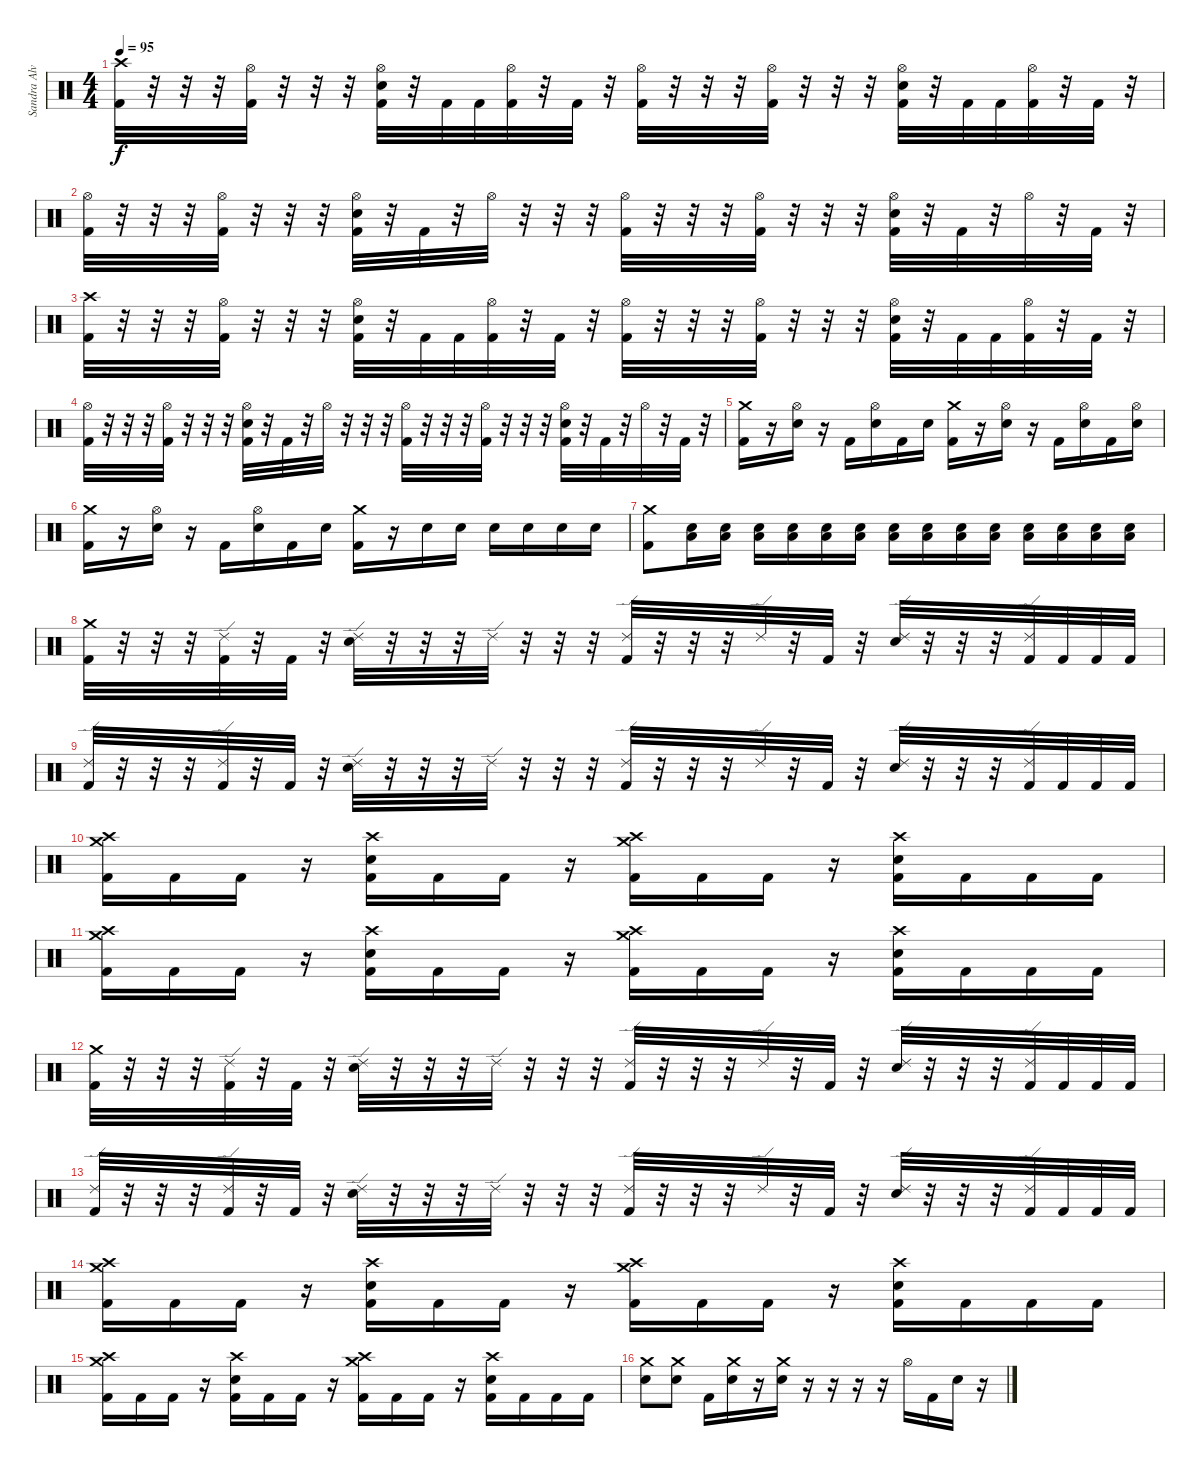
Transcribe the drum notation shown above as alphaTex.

\track ("Sandra Alvarenga" "Sandra Alv") {instrument percussion}
\staff
\articulation defaults
\ts (4 4)
\tempo 95
\clef neutral
\ks c
("Crash high (hit)" "Kick (hit) 2").32{dy f} r.32 r.32 r.32 ("Hi-Hat (open)" "Kick (hit) 2").32 r.32 r.32 r.32 ("Hi-Hat (open)" "Electric Snare (hit)" "Kick (hit) 2").32 r.32 "Kick (hit) 2".32 "Kick (hit) 2".32 ("Hi-Hat (open)" "Kick (hit) 2").32 r.32 "Kick (hit) 2".32 r.32 ("Hi-Hat (open)" "Kick (hit) 2").32 r.32 r.32 r.32 ("Hi-Hat (open)" "Kick (hit) 2").32 r.32 r.32 r.32 ("Hi-Hat (open)" "Electric Snare (hit)" "Kick (hit) 2").32 r.32 "Kick (hit) 2".32 "Kick (hit) 2".32 ("Hi-Hat (open)" "Kick (hit) 2").32 r.32 "Kick (hit) 2".32 r.32 |
("Hi-Hat (open)" "Kick (hit) 2").32 r.32 r.32 r.32 ("Hi-Hat (open)" "Kick (hit) 2").32 r.32 r.32 r.32 ("Hi-Hat (open)" "Electric Snare (hit)" "Kick (hit) 2").32 r.32 "Kick (hit) 2".32 r.32 "Hi-Hat (open)".32 r.32 r.32 r.32 ("Hi-Hat (open)" "Kick (hit) 2").32 r.32 r.32 r.32 ("Hi-Hat (open)" "Kick (hit) 2").32 r.32 r.32 r.32 ("Hi-Hat (open)" "Electric Snare (hit)" "Kick (hit) 2").32 r.32 "Kick (hit) 2".32 r.32 "Hi-Hat (open)".32 r.32 "Kick (hit) 2".32 r.32 |
("Crash high (hit)" "Kick (hit) 2").32 r.32 r.32 r.32 ("Hi-Hat (open)" "Kick (hit) 2").32 r.32 r.32 r.32 ("Hi-Hat (open)" "Electric Snare (hit)" "Kick (hit) 2").32 r.32 "Kick (hit) 2".32 "Kick (hit) 2".32 ("Hi-Hat (open)" "Kick (hit) 2").32 r.32 "Kick (hit) 2".32 r.32 ("Hi-Hat (open)" "Kick (hit) 2").32 r.32 r.32 r.32 ("Hi-Hat (open)" "Kick (hit) 2").32 r.32 r.32 r.32 ("Hi-Hat (open)" "Electric Snare (hit)" "Kick (hit) 2").32 r.32 "Kick (hit) 2".32 "Kick (hit) 2".32 ("Hi-Hat (open)" "Kick (hit) 2").32 r.32 "Kick (hit) 2".32 r.32 |
("Hi-Hat (open)" "Kick (hit) 2").32 r.32 r.32 r.32 ("Hi-Hat (open)" "Kick (hit) 2").32 r.32 r.32 r.32 ("Hi-Hat (open)" "Electric Snare (hit)" "Kick (hit) 2").32 r.32 "Kick (hit) 2".32 r.32 "Hi-Hat (open)".32 r.32 r.32 r.32 ("Hi-Hat (open)" "Kick (hit) 2").32 r.32 r.32 r.32 ("Hi-Hat (open)" "Kick (hit) 2").32 r.32 r.32 r.32 ("Hi-Hat (open)" "Electric Snare (hit)" "Kick (hit) 2").32 r.32 "Kick (hit) 2".32 r.32 "Hi-Hat (open)".32 r.32 "Kick (hit) 2".32 r.32 |
("Crash medium (hit)" "Kick (hit) 2").16 r.16 ("Hi-Hat (open)" "Electric Snare (hit)").16 r.16 "Kick (hit) 2".16 ("Hi-Hat (open)" "Electric Snare (hit)").16 "Kick (hit) 2".16 "Electric Snare (hit)".16 ("Crash medium (hit)" "Kick (hit) 2").16 r.16 ("Hi-Hat (open)" "Electric Snare (hit)").16 r.16 "Kick (hit) 2".16 ("Hi-Hat (open)" "Electric Snare (hit)").16 "Kick (hit) 2".16 ("Hi-Hat (open)" "Electric Snare (hit)").16 |
("Crash medium (hit)" "Kick (hit) 2").16 r.16 ("Hi-Hat (open)" "Electric Snare (hit)").16 r.16 "Kick (hit) 2".16 ("Hi-Hat (open)" "Electric Snare (hit)").16 "Kick (hit) 2".16 "Electric Snare (hit)".16 ("Crash medium (hit)" "Kick (hit) 2").16 r.16 "Electric Snare (hit)".16 "Electric Snare (hit)".16 "Electric Snare (hit)".16 "Electric Snare (hit)".16 "Electric Snare (hit)".16 "Electric Snare (hit)".16 |
("Crash medium (hit)" "Kick (hit) 2").8 ("Low Floor Tom (hit)" "Electric Snare (hit)").16 ("Low Floor Tom (hit)" "Electric Snare (hit)").16 ("Low Floor Tom (hit)" "Electric Snare (hit)").16 ("Low Floor Tom (hit)" "Electric Snare (hit)").16 ("Low Floor Tom (hit)" "Electric Snare (hit)").16 ("Low Floor Tom (hit)" "Electric Snare (hit)").16 ("Low Floor Tom (hit)" "Electric Snare (hit)").16 ("Low Floor Tom (hit)" "Electric Snare (hit)").16 ("Low Floor Tom (hit)" "Electric Snare (hit)").16 ("Low Floor Tom (hit)" "Electric Snare (hit)").16 ("Low Floor Tom (hit)" "Electric Snare (hit)").16 ("Low Floor Tom (hit)" "Electric Snare (hit)").16 ("Low Floor Tom (hit)" "Electric Snare (hit)").16 ("Low Floor Tom (hit)" "Electric Snare (hit)").16 |
("Crash medium (hit)" "Kick (hit) 2").32 r.32 r.32 r.32 ("Ride (edge) 2" "Kick (hit) 2").32 r.32 "Kick (hit) 2".32 r.32 ("Ride (edge) 2" "Electric Snare (hit)").32 r.32 r.32 r.32 "Ride (edge) 2".32 r.32 r.32 r.32 ("Ride (edge) 2" "Kick (hit) 2").32 r.32 r.32 r.32 "Ride (edge) 2".32 r.32 "Kick (hit) 2".32 r.32 ("Ride (edge) 2" "Electric Snare (hit)").32 r.32 r.32 r.32 ("Ride (edge) 2" "Kick (hit) 2").32 "Kick (hit) 2".32 "Kick (hit) 2".32 "Kick (hit) 2".32 |
("Ride (edge) 2" "Kick (hit) 2").32 r.32 r.32 r.32 ("Ride (edge) 2" "Kick (hit) 2").32 r.32 "Kick (hit) 2".32 r.32 ("Ride (edge) 2" "Electric Snare (hit)").32 r.32 r.32 r.32 "Ride (edge) 2".32 r.32 r.32 r.32 ("Ride (edge) 2" "Kick (hit) 2").32 r.32 r.32 r.32 "Ride (edge) 2".32 r.32 "Kick (hit) 2".32 r.32 ("Ride (edge) 2" "Electric Snare (hit)").32 r.32 r.32 r.32 ("Ride (edge) 2" "Kick (hit) 2").32 "Kick (hit) 2".32 "Kick (hit) 2".32 "Kick (hit) 2".32 |
("Crash medium (hit)" "Crash high (hit)" "Kick (hit) 2").16 "Kick (hit) 2".16 "Kick (hit) 2".16 r.16 ("Crash high (hit)" "Electric Snare (hit)" "Kick (hit) 2").16 "Kick (hit) 2".16 "Kick (hit) 2".16 r.16 ("Crash medium (hit)" "Crash high (hit)" "Kick (hit) 2").16 "Kick (hit) 2".16 "Kick (hit) 2".16 r.16 ("Crash high (hit)" "Electric Snare (hit)" "Kick (hit) 2").16 "Kick (hit) 2".16 "Kick (hit) 2".16 "Kick (hit) 2".16 |
("Crash medium (hit)" "Crash high (hit)" "Kick (hit) 2").16 "Kick (hit) 2".16 "Kick (hit) 2".16 r.16 ("Crash high (hit)" "Electric Snare (hit)" "Kick (hit) 2").16 "Kick (hit) 2".16 "Kick (hit) 2".16 r.16 ("Crash medium (hit)" "Crash high (hit)" "Kick (hit) 2").16 "Kick (hit) 2".16 "Kick (hit) 2".16 r.16 ("Crash high (hit)" "Electric Snare (hit)" "Kick (hit) 2").16 "Kick (hit) 2".16 "Kick (hit) 2".16 "Kick (hit) 2".16 |
("Crash medium (hit)" "Kick (hit) 2").32 r.32 r.32 r.32 ("Ride (edge) 2" "Kick (hit) 2").32 r.32 "Kick (hit) 2".32 r.32 ("Ride (edge) 2" "Electric Snare (hit)").32 r.32 r.32 r.32 "Ride (edge) 2".32 r.32 r.32 r.32 ("Ride (edge) 2" "Kick (hit) 2").32 r.32 r.32 r.32 "Ride (edge) 2".32 r.32 "Kick (hit) 2".32 r.32 ("Ride (edge) 2" "Electric Snare (hit)").32 r.32 r.32 r.32 ("Ride (edge) 2" "Kick (hit) 2").32 "Kick (hit) 2".32 "Kick (hit) 2".32 "Kick (hit) 2".32 |
("Ride (edge) 2" "Kick (hit) 2").32 r.32 r.32 r.32 ("Ride (edge) 2" "Kick (hit) 2").32 r.32 "Kick (hit) 2".32 r.32 ("Ride (edge) 2" "Electric Snare (hit)").32 r.32 r.32 r.32 "Ride (edge) 2".32 r.32 r.32 r.32 ("Ride (edge) 2" "Kick (hit) 2").32 r.32 r.32 r.32 "Ride (edge) 2".32 r.32 "Kick (hit) 2".32 r.32 ("Ride (edge) 2" "Electric Snare (hit)").32 r.32 r.32 r.32 ("Ride (edge) 2" "Kick (hit) 2").32 "Kick (hit) 2".32 "Kick (hit) 2".32 "Kick (hit) 2".32 |
("Crash medium (hit)" "Crash high (hit)" "Kick (hit) 2").16 "Kick (hit) 2".16 "Kick (hit) 2".16 r.16 ("Crash high (hit)" "Electric Snare (hit)" "Kick (hit) 2").16 "Kick (hit) 2".16 "Kick (hit) 2".16 r.16 ("Crash medium (hit)" "Crash high (hit)" "Kick (hit) 2").16 "Kick (hit) 2".16 "Kick (hit) 2".16 r.16 ("Crash high (hit)" "Electric Snare (hit)" "Kick (hit) 2").16 "Kick (hit) 2".16 "Kick (hit) 2".16 "Kick (hit) 2".16 |
("Crash medium (hit)" "Crash high (hit)" "Kick (hit) 2").16 "Kick (hit) 2".16 "Kick (hit) 2".16 r.16 ("Crash high (hit)" "Electric Snare (hit)" "Kick (hit) 2").16 "Kick (hit) 2".16 "Kick (hit) 2".16 r.16 ("Crash medium (hit)" "Crash high (hit)" "Kick (hit) 2").16 "Kick (hit) 2".16 "Kick (hit) 2".16 r.16 ("Crash high (hit)" "Electric Snare (hit)" "Kick (hit) 2").16 "Kick (hit) 2".16 "Kick (hit) 2".16 "Kick (hit) 2".16 |
("Crash medium (hit)" "Electric Snare (hit)").8 ("Crash medium (hit)" "Electric Snare (hit)").8 "Kick (hit) 2".16 ("Crash medium (hit)" "Electric Snare (hit)").16 r.16 ("Crash medium (hit)" "Electric Snare (hit)").16 r.16 r.16 r.16 r.16 "Hi-Hat (open)".16 "Kick (hit) 2".16 "Electric Snare (hit)".16 r.16
